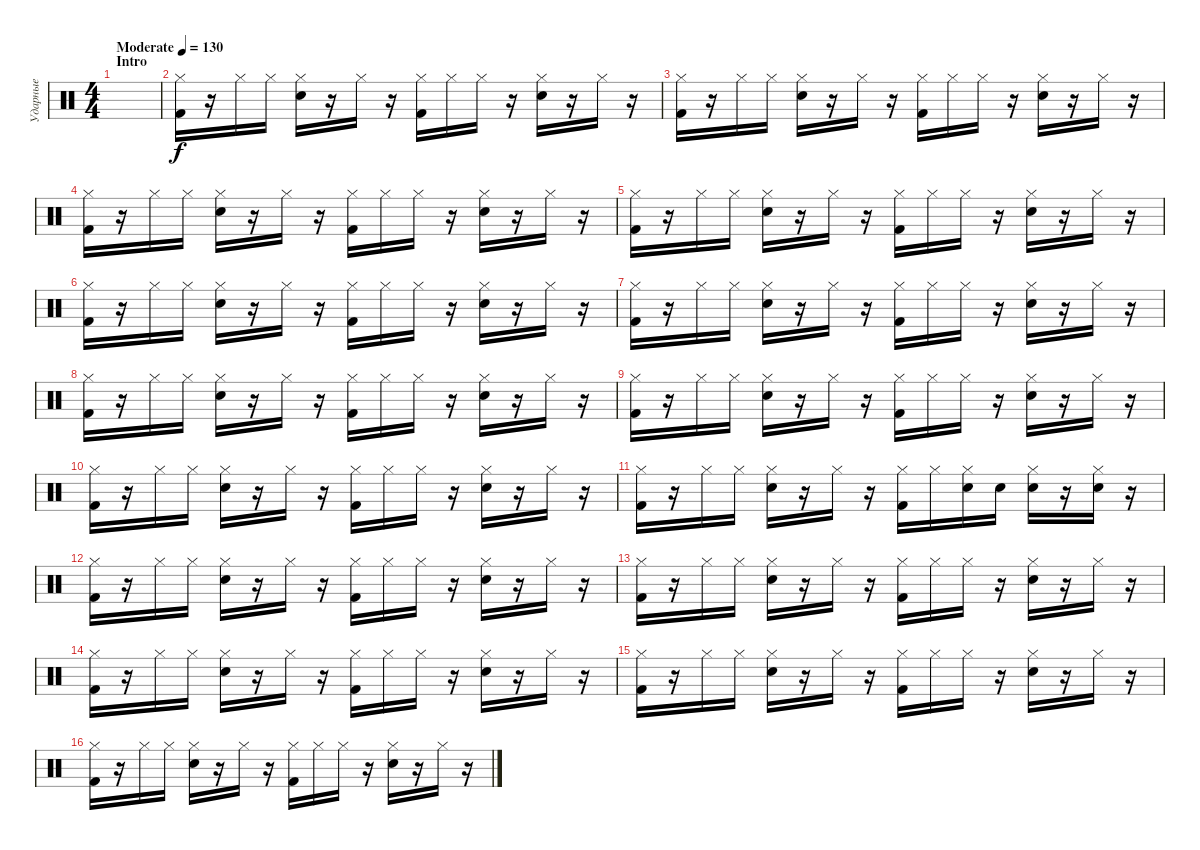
\track ("Ударные" "Ударные") {instrument percussion}
\staff {score}
\articulation defaults
\ts (4 4)
\section ("" "Intro")
\tempo (130 "Moderate")
\clef neutral
\ks c
|
("Kick (hit) 2" "Hi-Hat (closed)").16 r.16 "Hi-Hat (closed)".16 "Hi-Hat (closed)".16 ("Snare (hit) 2" "Hi-Hat (closed)").16 r.16 "Hi-Hat (closed)".16 r.16 ("Kick (hit) 2" "Hi-Hat (closed)").16 "Hi-Hat (closed)".16 "Hi-Hat (closed)".16 r.16 ("Snare (hit) 2" "Hi-Hat (closed)").16 r.16 "Hi-Hat (closed)".16 r.16 |
("Kick (hit) 2" "Hi-Hat (closed)").16 r.16 "Hi-Hat (closed)".16 "Hi-Hat (closed)".16 ("Snare (hit) 2" "Hi-Hat (closed)").16 r.16 "Hi-Hat (closed)".16 r.16 ("Kick (hit) 2" "Hi-Hat (closed)").16 "Hi-Hat (closed)".16 "Hi-Hat (closed)".16 r.16 ("Snare (hit) 2" "Hi-Hat (closed)").16 r.16 "Hi-Hat (closed)".16 r.16 |
("Kick (hit) 2" "Hi-Hat (closed)").16 r.16 "Hi-Hat (closed)".16 "Hi-Hat (closed)".16 ("Snare (hit) 2" "Hi-Hat (closed)").16 r.16 "Hi-Hat (closed)".16 r.16 ("Kick (hit) 2" "Hi-Hat (closed)").16 "Hi-Hat (closed)".16 "Hi-Hat (closed)".16 r.16 ("Snare (hit) 2" "Hi-Hat (closed)").16 r.16 "Hi-Hat (closed)".16 r.16 |
("Kick (hit) 2" "Hi-Hat (closed)").16 r.16 "Hi-Hat (closed)".16 "Hi-Hat (closed)".16 ("Snare (hit) 2" "Hi-Hat (closed)").16 r.16 "Hi-Hat (closed)".16 r.16 ("Kick (hit) 2" "Hi-Hat (closed)").16 "Hi-Hat (closed)".16 "Hi-Hat (closed)".16 r.16 ("Snare (hit) 2" "Hi-Hat (closed)").16 r.16 "Hi-Hat (closed)".16 r.16 |
("Kick (hit) 2" "Hi-Hat (closed)").16 r.16 "Hi-Hat (closed)".16 "Hi-Hat (closed)".16 ("Snare (hit) 2" "Hi-Hat (closed)").16 r.16 "Hi-Hat (closed)".16 r.16 ("Kick (hit) 2" "Hi-Hat (closed)").16 "Hi-Hat (closed)".16 "Hi-Hat (closed)".16 r.16 ("Snare (hit) 2" "Hi-Hat (closed)").16 r.16 "Hi-Hat (closed)".16 r.16 |
("Kick (hit) 2" "Hi-Hat (closed)").16 r.16 "Hi-Hat (closed)".16 "Hi-Hat (closed)".16 ("Snare (hit) 2" "Hi-Hat (closed)").16 r.16 "Hi-Hat (closed)".16 r.16 ("Kick (hit) 2" "Hi-Hat (closed)").16 "Hi-Hat (closed)".16 "Hi-Hat (closed)".16 r.16 ("Snare (hit) 2" "Hi-Hat (closed)").16 r.16 "Hi-Hat (closed)".16 r.16 |
("Kick (hit) 2" "Hi-Hat (closed)").16 r.16 "Hi-Hat (closed)".16 "Hi-Hat (closed)".16 ("Snare (hit) 2" "Hi-Hat (closed)").16 r.16 "Hi-Hat (closed)".16 r.16 ("Kick (hit) 2" "Hi-Hat (closed)").16 "Hi-Hat (closed)".16 "Hi-Hat (closed)".16 r.16 ("Snare (hit) 2" "Hi-Hat (closed)").16 r.16 "Hi-Hat (closed)".16 r.16 |
("Kick (hit) 2" "Hi-Hat (closed)").16 r.16 "Hi-Hat (closed)".16 "Hi-Hat (closed)".16 ("Snare (hit) 2" "Hi-Hat (closed)").16 r.16 "Hi-Hat (closed)".16 r.16 ("Kick (hit) 2" "Hi-Hat (closed)").16 "Hi-Hat (closed)".16 "Hi-Hat (closed)".16 r.16 ("Snare (hit) 2" "Hi-Hat (closed)").16 r.16 "Hi-Hat (closed)".16 r.16 |
("Kick (hit) 2" "Hi-Hat (closed)").16 r.16 "Hi-Hat (closed)".16 "Hi-Hat (closed)".16 ("Snare (hit) 2" "Hi-Hat (closed)").16 r.16 "Hi-Hat (closed)".16 r.16 ("Kick (hit) 2" "Hi-Hat (closed)").16 "Hi-Hat (closed)".16 "Hi-Hat (closed)".16 r.16 ("Snare (hit) 2" "Hi-Hat (closed)").16 r.16 "Hi-Hat (closed)".16 r.16 |
("Kick (hit) 2" "Hi-Hat (closed)").16 r.16 "Hi-Hat (closed)".16 "Hi-Hat (closed)".16 ("Snare (hit) 2" "Hi-Hat (closed)").16 r.16 "Hi-Hat (closed)".16 r.16 ("Kick (hit) 2" "Hi-Hat (closed)").16 "Hi-Hat (closed)".16 ("Snare (hit) 2" "Hi-Hat (closed)").16 "Snare (hit) 2".16 ("Snare (hit) 2" "Hi-Hat (closed)").16 r.16 ("Snare (hit) 2" "Hi-Hat (closed)").16 r.16 |
("Kick (hit) 2" "Hi-Hat (closed)").16 r.16 "Hi-Hat (closed)".16 "Hi-Hat (closed)".16 ("Snare (hit) 2" "Hi-Hat (closed)").16 r.16 "Hi-Hat (closed)".16 r.16 ("Kick (hit) 2" "Hi-Hat (closed)").16 "Hi-Hat (closed)".16 "Hi-Hat (closed)".16 r.16 ("Snare (hit) 2" "Hi-Hat (closed)").16 r.16 "Hi-Hat (closed)".16 r.16 |
("Kick (hit) 2" "Hi-Hat (closed)").16 r.16 "Hi-Hat (closed)".16 "Hi-Hat (closed)".16 ("Snare (hit) 2" "Hi-Hat (closed)").16 r.16 "Hi-Hat (closed)".16 r.16 ("Kick (hit) 2" "Hi-Hat (closed)").16 "Hi-Hat (closed)".16 "Hi-Hat (closed)".16 r.16 ("Snare (hit) 2" "Hi-Hat (closed)").16 r.16 "Hi-Hat (closed)".16 r.16 |
("Kick (hit) 2" "Hi-Hat (closed)").16 r.16 "Hi-Hat (closed)".16 "Hi-Hat (closed)".16 ("Snare (hit) 2" "Hi-Hat (closed)").16 r.16 "Hi-Hat (closed)".16 r.16 ("Kick (hit) 2" "Hi-Hat (closed)").16 "Hi-Hat (closed)".16 "Hi-Hat (closed)".16 r.16 ("Snare (hit) 2" "Hi-Hat (closed)").16 r.16 "Hi-Hat (closed)".16 r.16 |
("Kick (hit) 2" "Hi-Hat (closed)").16 r.16 "Hi-Hat (closed)".16 "Hi-Hat (closed)".16 ("Snare (hit) 2" "Hi-Hat (closed)").16 r.16 "Hi-Hat (closed)".16 r.16 ("Kick (hit) 2" "Hi-Hat (closed)").16 "Hi-Hat (closed)".16 "Hi-Hat (closed)".16 r.16 ("Snare (hit) 2" "Hi-Hat (closed)").16 r.16 "Hi-Hat (closed)".16 r.16 |
("Kick (hit) 2" "Hi-Hat (closed)").16 r.16 "Hi-Hat (closed)".16 "Hi-Hat (closed)".16 ("Snare (hit) 2" "Hi-Hat (closed)").16 r.16 "Hi-Hat (closed)".16 r.16 ("Kick (hit) 2" "Hi-Hat (closed)").16 "Hi-Hat (closed)".16 "Hi-Hat (closed)".16 r.16 ("Snare (hit) 2" "Hi-Hat (closed)").16 r.16 "Hi-Hat (closed)".16 r.16
